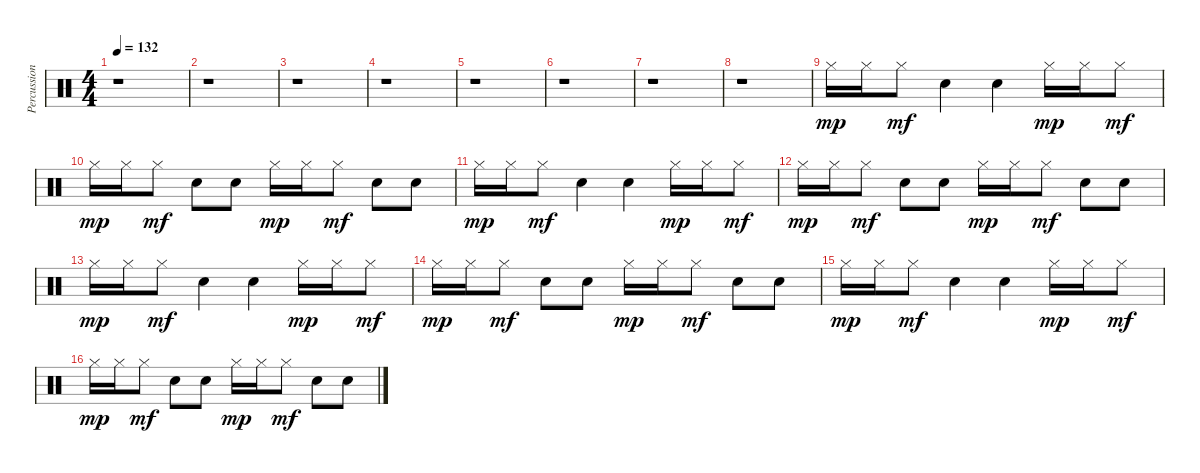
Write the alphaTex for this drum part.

\track ("Percussion" "Percussion") {instrument percussion}
\staff {score}
\articulation defaults
\ts (4 4)
\tempo 132
\clef neutral
\ks c
r.1{dy mp} |
r.1 |
r.1 |
r.1 |
r.1 |
r.1 |
r.1 |
r.1 |
"Hi-Hat (closed)".16 "Hi-Hat (closed)".16 "Hi-Hat (closed)".8{dy mf} "Hand Clap (hit)".4 "Hand Clap (hit)".4 "Hi-Hat (closed)".16{dy mp} "Hi-Hat (closed)".16 "Hi-Hat (closed)".8{dy mf} |
"Hi-Hat (closed)".16{dy mp} "Hi-Hat (closed)".16 "Hi-Hat (closed)".8{dy mf} "Hand Clap (hit)".8 "Hand Clap (hit)".8 "Hi-Hat (closed)".16{dy mp} "Hi-Hat (closed)".16 "Hi-Hat (closed)".8{dy mf} "Hand Clap (hit)".8 "Hand Clap (hit)".8 |
"Hi-Hat (closed)".16{dy mp} "Hi-Hat (closed)".16 "Hi-Hat (closed)".8{dy mf} "Hand Clap (hit)".4 "Hand Clap (hit)".4 "Hi-Hat (closed)".16{dy mp} "Hi-Hat (closed)".16 "Hi-Hat (closed)".8{dy mf} |
"Hi-Hat (closed)".16{dy mp} "Hi-Hat (closed)".16 "Hi-Hat (closed)".8{dy mf} "Hand Clap (hit)".8 "Hand Clap (hit)".8 "Hi-Hat (closed)".16{dy mp} "Hi-Hat (closed)".16 "Hi-Hat (closed)".8{dy mf} "Hand Clap (hit)".8 "Hand Clap (hit)".8 |
"Hi-Hat (closed)".16{dy mp} "Hi-Hat (closed)".16 "Hi-Hat (closed)".8{dy mf} "Hand Clap (hit)".4 "Hand Clap (hit)".4 "Hi-Hat (closed)".16{dy mp} "Hi-Hat (closed)".16 "Hi-Hat (closed)".8{dy mf} |
"Hi-Hat (closed)".16{dy mp} "Hi-Hat (closed)".16 "Hi-Hat (closed)".8{dy mf} "Hand Clap (hit)".8 "Hand Clap (hit)".8 "Hi-Hat (closed)".16{dy mp} "Hi-Hat (closed)".16 "Hi-Hat (closed)".8{dy mf} "Hand Clap (hit)".8 "Hand Clap (hit)".8 |
"Hi-Hat (closed)".16{dy mp} "Hi-Hat (closed)".16 "Hi-Hat (closed)".8{dy mf} "Hand Clap (hit)".4 "Hand Clap (hit)".4 "Hi-Hat (closed)".16{dy mp} "Hi-Hat (closed)".16 "Hi-Hat (closed)".8{dy mf} |
"Hi-Hat (closed)".16{dy mp} "Hi-Hat (closed)".16 "Hi-Hat (closed)".8{dy mf} "Hand Clap (hit)".8 "Hand Clap (hit)".8 "Hi-Hat (closed)".16{dy mp} "Hi-Hat (closed)".16 "Hi-Hat (closed)".8{dy mf} "Hand Clap (hit)".8 "Hand Clap (hit)".8
